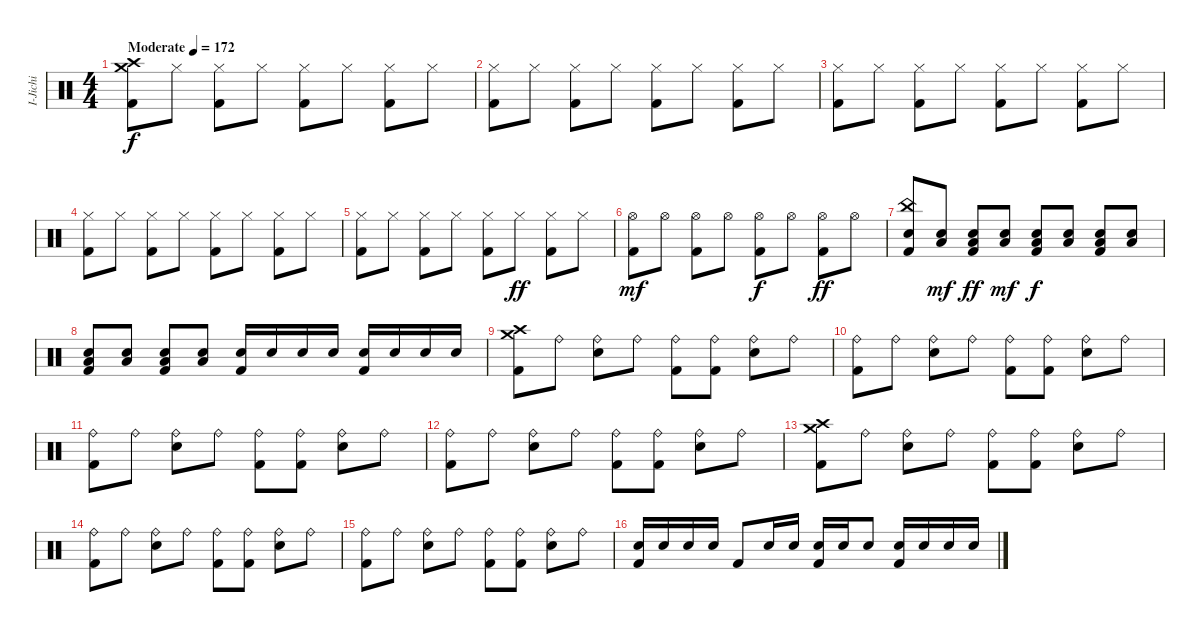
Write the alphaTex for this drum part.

\track ("I-Jichi" "I-Jichi") {instrument percussion}
\staff {score}
\articulation defaults
\ts (4 4)
\tempo (172 "Moderate")
\clef neutral
\ks c
("Crash high (hit)" "Crash medium (hit)" "Kick (hit) 2").8{dy f} "Hi-Hat (closed)".8 ("Hi-Hat (closed)" "Kick (hit) 2").8 "Hi-Hat (closed)".8 ("Hi-Hat (closed)" "Kick (hit) 2").8 "Hi-Hat (closed)".8 ("Hi-Hat (closed)" "Kick (hit) 2").8 "Hi-Hat (closed)".8 |
("Hi-Hat (closed)" "Kick (hit) 2").8 "Hi-Hat (closed)".8 ("Hi-Hat (closed)" "Kick (hit) 2").8 "Hi-Hat (closed)".8 ("Hi-Hat (closed)" "Kick (hit) 2").8 "Hi-Hat (closed)".8 ("Hi-Hat (closed)" "Kick (hit) 2").8 "Hi-Hat (closed)".8 |
("Hi-Hat (closed)" "Kick (hit) 2").8 "Hi-Hat (closed)".8 ("Hi-Hat (closed)" "Kick (hit) 2").8 "Hi-Hat (closed)".8 ("Hi-Hat (closed)" "Kick (hit) 2").8 "Hi-Hat (closed)".8 ("Hi-Hat (closed)" "Kick (hit) 2").8 "Hi-Hat (closed)".8 |
("Hi-Hat (closed)" "Kick (hit) 2").8 "Hi-Hat (closed)".8 ("Hi-Hat (closed)" "Kick (hit) 2").8 "Hi-Hat (closed)".8 ("Hi-Hat (closed)" "Kick (hit) 2").8 "Hi-Hat (closed)".8 ("Hi-Hat (closed)" "Kick (hit) 2").8 "Hi-Hat (closed)".8 |
("Hi-Hat (closed)" "Kick (hit) 2").8 "Hi-Hat (closed)".8 ("Hi-Hat (closed)" "Kick (hit) 2").8 "Hi-Hat (closed)".8 ("Hi-Hat (closed)" "Kick (hit) 2").8 "Hi-Hat (closed)".8{dy ff} ("Hi-Hat (closed)" "Kick (hit) 2").8 "Hi-Hat (closed)".8 |
("Hi-Hat (open)" "Kick (hit) 2").8{dy mf} "Hi-Hat (open)".8 ("Hi-Hat (open)" "Kick (hit) 2").8 "Hi-Hat (open)".8 ("Hi-Hat (open)" "Kick (hit) 2").8{dy f} "Hi-Hat (open)".8 ("Hi-Hat (open)" "Kick (hit) 2").8{dy ff} "Hi-Hat (open)".8 |
("China (hit)" "Electric Snare (hit)" "Kick (hit) 2").8 ("Low Floor Tom (hit)" "Electric Snare (hit)").8{dy mf} ("Low Floor Tom (hit)" "Electric Snare (hit)" "Kick (hit) 2").8{dy ff} ("Low Floor Tom (hit)" "Electric Snare (hit)").8{dy mf} ("Low Floor Tom (hit)" "Electric Snare (hit)" "Kick (hit) 2").8{dy f} ("Low Floor Tom (hit)" "Electric Snare (hit)").8 ("Low Floor Tom (hit)" "Electric Snare (hit)" "Kick (hit) 2").8 ("Low Floor Tom (hit)" "Electric Snare (hit)").8 |
("Low Floor Tom (hit)" "Electric Snare (hit)" "Kick (hit) 2").8 ("Low Floor Tom (hit)" "Electric Snare (hit)").8 ("Low Floor Tom (hit)" "Electric Snare (hit)" "Kick (hit) 2").8 ("Low Floor Tom (hit)" "Electric Snare (hit)").8 ("Electric Snare (hit)" "Kick (hit) 2").16 "Electric Snare (hit)".16 "Electric Snare (hit)".16 "Electric Snare (hit)".16 ("Electric Snare (hit)" "Kick (hit) 2").16 "Electric Snare (hit)".16 "Electric Snare (hit)".16 "Electric Snare (hit)".16 |
("Crash high (hit)" "Crash medium (hit)" "Kick (hit) 2").8 "Ride (bell)".8 ("Ride (bell)" "Electric Snare (hit)").8 "Ride (bell)".8 ("Ride (bell)" "Kick (hit) 2").8 ("Ride (bell)" "Kick (hit) 2").8 ("Ride (bell)" "Electric Snare (hit)").8 "Ride (bell)".8 |
("Ride (bell)" "Kick (hit) 2").8 "Ride (bell)".8 ("Ride (bell)" "Electric Snare (hit)").8 "Ride (bell)".8 ("Ride (bell)" "Kick (hit) 2").8 ("Ride (bell)" "Kick (hit) 2").8 ("Ride (bell)" "Electric Snare (hit)").8 "Ride (bell)".8 |
("Ride (bell)" "Kick (hit) 2").8 "Ride (bell)".8 ("Ride (bell)" "Electric Snare (hit)").8 "Ride (bell)".8 ("Ride (bell)" "Kick (hit) 2").8 ("Ride (bell)" "Kick (hit) 2").8 ("Ride (bell)" "Electric Snare (hit)").8 "Ride (bell)".8 |
("Ride (bell)" "Kick (hit) 2").8 "Ride (bell)".8 ("Ride (bell)" "Electric Snare (hit)").8 "Ride (bell)".8 ("Ride (bell)" "Kick (hit) 2").8 ("Ride (bell)" "Kick (hit) 2").8 ("Ride (bell)" "Electric Snare (hit)").8 "Ride (bell)".8 |
("Crash high (hit)" "Crash medium (hit)" "Kick (hit) 2").8 "Ride (bell)".8 ("Ride (bell)" "Electric Snare (hit)").8 "Ride (bell)".8 ("Ride (bell)" "Kick (hit) 2").8 ("Ride (bell)" "Kick (hit) 2").8 ("Ride (bell)" "Electric Snare (hit)").8 "Ride (bell)".8 |
("Ride (bell)" "Kick (hit) 2").8 "Ride (bell)".8 ("Ride (bell)" "Electric Snare (hit)").8 "Ride (bell)".8 ("Ride (bell)" "Kick (hit) 2").8 ("Ride (bell)" "Kick (hit) 2").8 ("Ride (bell)" "Electric Snare (hit)").8 "Ride (bell)".8 |
("Ride (bell)" "Kick (hit) 2").8 "Ride (bell)".8 ("Ride (bell)" "Electric Snare (hit)").8 "Ride (bell)".8 ("Ride (bell)" "Kick (hit) 2").8 ("Ride (bell)" "Kick (hit) 2").8 ("Ride (bell)" "Electric Snare (hit)").8 "Ride (bell)".8 |
("Electric Snare (hit)" "Kick (hit) 2").16 "Electric Snare (hit)".16 "Electric Snare (hit)".16 "Electric Snare (hit)".16 "Kick (hit) 2".8 "Electric Snare (hit)".16 "Electric Snare (hit)".16 ("Electric Snare (hit)" "Kick (hit) 2").16 "Electric Snare (hit)".16 "Electric Snare (hit)".8 ("Electric Snare (hit)" "Kick (hit) 2").16 "Electric Snare (hit)".16 "Electric Snare (hit)".16 "Electric Snare (hit)".16
